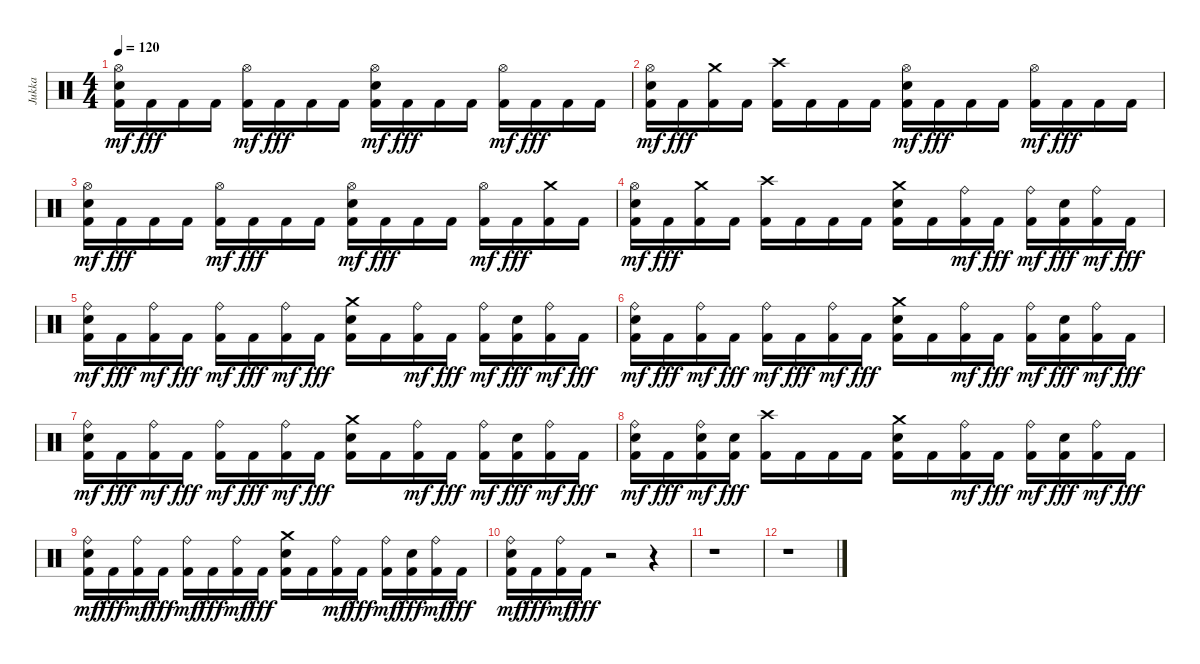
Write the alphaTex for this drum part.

\track ("Jukka" "Jukka") {instrument percussion}
\staff {score}
\articulation defaults
\ts (4 4)
\tempo 120
\clef neutral
\ks c
("Electric Snare (hit)" "Kick (hit) 2" "Hi-Hat (open)").16{dy mf volume 12} "Kick (hit) 2".16{dy fff} "Kick (hit) 2".16{volume 11} "Kick (hit) 2".16{volume 11} ("Kick (hit) 2" "Hi-Hat (open)").16{dy mf} "Kick (hit) 2".16{dy fff volume 11} "Kick (hit) 2".16{volume 11} "Kick (hit) 2".16 ("Electric Snare (hit)" "Kick (hit) 2" "Hi-Hat (open)").16{dy mf volume 11} "Kick (hit) 2".16{dy fff} "Kick (hit) 2".16{volume 11} "Kick (hit) 2".16{volume 11} ("Kick (hit) 2" "Hi-Hat (open)").16{dy mf} "Kick (hit) 2".16{dy fff volume 10} "Kick (hit) 2".16{volume 10} "Kick (hit) 2".16 |
("Electric Snare (hit)" "Kick (hit) 2" "Hi-Hat (open)").16{dy mf volume 10} "Kick (hit) 2".16{dy fff} ("Kick (hit) 2" "Crash medium (hit)").16{volume 10} "Kick (hit) 2".16{volume 10} ("Kick (hit) 2" "Crash high (hit)").16 "Kick (hit) 2".16{volume 10} "Kick (hit) 2".16{volume 10} "Kick (hit) 2".16 ("Electric Snare (hit)" "Kick (hit) 2" "Hi-Hat (open)").16{dy mf volume 10} "Kick (hit) 2".16{dy fff} "Kick (hit) 2".16{volume 10} "Kick (hit) 2".16{volume 9} ("Kick (hit) 2" "Hi-Hat (open)").16{dy mf} "Kick (hit) 2".16{dy fff volume 9} "Kick (hit) 2".16{volume 9} "Kick (hit) 2".16 |
("Electric Snare (hit)" "Kick (hit) 2" "Hi-Hat (open)").16{dy mf volume 9} "Kick (hit) 2".16{dy fff} "Kick (hit) 2".16{volume 9} "Kick (hit) 2".16{volume 9} ("Kick (hit) 2" "Hi-Hat (open)").16{dy mf} "Kick (hit) 2".16{dy fff volume 9} "Kick (hit) 2".16{volume 8} "Kick (hit) 2".16 ("Electric Snare (hit)" "Kick (hit) 2" "Hi-Hat (open)").16{dy mf volume 8} "Kick (hit) 2".16{dy fff volume 8} "Kick (hit) 2".16 "Kick (hit) 2".16{volume 8} ("Kick (hit) 2" "Hi-Hat (open)").16{dy mf} "Kick (hit) 2".16{dy fff volume 8} ("Kick (hit) 2" "Crash medium (hit)").16{volume 8} "Kick (hit) 2".16 |
("Electric Snare (hit)" "Kick (hit) 2" "Hi-Hat (open)").16{dy mf volume 8} "Kick (hit) 2".16{dy fff volume 8} ("Kick (hit) 2" "Crash medium (hit)").16 "Kick (hit) 2".16{volume 8} ("Kick (hit) 2" "Crash high (hit)").16 "Kick (hit) 2".16{volume 7} "Kick (hit) 2".16{volume 7} "Kick (hit) 2".16 ("Electric Snare (hit)" "Kick (hit) 2" "Crash medium (hit)").16{volume 7} "Kick (hit) 2".16{volume 7} ("Kick (hit) 2" "Ride (bell)").16{dy mf} "Kick (hit) 2".16{dy fff volume 7} ("Kick (hit) 2" "Ride (bell)").16{dy mf} ("Kick (hit) 2" "Electric Snare (hit)").16{dy fff volume 7} ("Kick (hit) 2" "Ride (bell)").16{dy mf volume 7} "Kick (hit) 2".16{dy fff} |
("Electric Snare (hit)" "Kick (hit) 2" "Ride (bell)").16{dy mf volume 6} "Kick (hit) 2".16{dy fff volume 6} ("Kick (hit) 2" "Ride (bell)").16{dy mf} "Kick (hit) 2".16{dy fff volume 6} ("Kick (hit) 2" "Ride (bell)").16{dy mf} "Kick (hit) 2".16{dy fff volume 6} ("Kick (hit) 2" "Ride (bell)").16{dy mf volume 6} "Kick (hit) 2".16{dy fff} ("Electric Snare (hit)" "Kick (hit) 2" "Crash medium (hit)").16{volume 6} "Kick (hit) 2".16{volume 6} ("Kick (hit) 2" "Ride (bell)").16{dy mf} "Kick (hit) 2".16{dy fff volume 6} ("Kick (hit) 2" "Ride (bell)").16{dy mf} ("Kick (hit) 2" "Electric Snare (hit)").16{dy fff volume 6} ("Kick (hit) 2" "Ride (bell)").16{dy mf volume 5} "Kick (hit) 2".16{dy fff} |
("Electric Snare (hit)" "Kick (hit) 2" "Ride (bell)").16{dy mf volume 5} "Kick (hit) 2".16{dy fff volume 5} ("Kick (hit) 2" "Ride (bell)").16{dy mf} "Kick (hit) 2".16{dy fff volume 5} ("Kick (hit) 2" "Ride (bell)").16{dy mf} "Kick (hit) 2".16{dy fff volume 5} ("Kick (hit) 2" "Ride (bell)").16{dy mf volume 5} "Kick (hit) 2".16{dy fff} ("Electric Snare (hit)" "Kick (hit) 2" "Crash medium (hit)").16{volume 5} "Kick (hit) 2".16{volume 4} ("Kick (hit) 2" "Ride (bell)").16{dy mf} "Kick (hit) 2".16{dy fff volume 4} ("Kick (hit) 2" "Ride (bell)").16{dy mf} ("Kick (hit) 2" "Electric Snare (hit)").16{dy fff volume 4} ("Kick (hit) 2" "Ride (bell)").16{dy mf volume 4} "Kick (hit) 2".16{dy fff} |
("Electric Snare (hit)" "Kick (hit) 2" "Ride (bell)").16{dy mf volume 4} "Kick (hit) 2".16{dy fff volume 4} ("Kick (hit) 2" "Ride (bell)").16{dy mf} "Kick (hit) 2".16{dy fff volume 4} ("Kick (hit) 2" "Ride (bell)").16{dy mf} "Kick (hit) 2".16{dy fff volume 4} ("Kick (hit) 2" "Ride (bell)").16{dy mf volume 4} "Kick (hit) 2".16{dy fff} ("Electric Snare (hit)" "Kick (hit) 2" "Crash medium (hit)").16{volume 3} "Kick (hit) 2".16{volume 3} ("Kick (hit) 2" "Ride (bell)").16{dy mf} "Kick (hit) 2".16{dy fff volume 3} ("Kick (hit) 2" "Ride (bell)").16{dy mf} ("Kick (hit) 2" "Electric Snare (hit)").16{dy fff volume 3} ("Kick (hit) 2" "Ride (bell)").16{dy mf volume 3} "Kick (hit) 2".16{dy fff} |
("Electric Snare (hit)" "Kick (hit) 2" "Ride (bell)").16{dy mf volume 3} "Kick (hit) 2".16{dy fff volume 3} ("Kick (hit) 2" "Electric Snare (hit)" "Ride (bell)").16{dy mf} ("Kick (hit) 2" "Electric Snare (hit)").16{dy fff volume 2} ("Kick (hit) 2" "Crash high (hit)").16 "Kick (hit) 2".16{volume 2} "Kick (hit) 2".16{volume 2} "Kick (hit) 2".16 ("Electric Snare (hit)" "Kick (hit) 2" "Crash medium (hit)").16{volume 2} "Kick (hit) 2".16{volume 2} ("Kick (hit) 2" "Ride (bell)").16{dy mf} "Kick (hit) 2".16{dy fff volume 2} ("Kick (hit) 2" "Ride (bell)").16{dy mf} ("Kick (hit) 2" "Electric Snare (hit)").16{dy fff volume 2} ("Kick (hit) 2" "Ride (bell)").16{dy mf volume 2} "Kick (hit) 2".16{dy fff} |
("Electric Snare (hit)" "Kick (hit) 2" "Ride (bell)").16{dy mf volume 2} "Kick (hit) 2".16{dy fff volume 1} ("Kick (hit) 2" "Ride (bell)").16{dy mf} "Kick (hit) 2".16{dy fff volume 1} ("Kick (hit) 2" "Ride (bell)").16{dy mf} "Kick (hit) 2".16{dy fff volume 1} ("Kick (hit) 2" "Ride (bell)").16{dy mf volume 1} "Kick (hit) 2".16{dy fff} ("Electric Snare (hit)" "Kick (hit) 2" "Crash medium (hit)").16{volume 1} "Kick (hit) 2".16{volume 1} ("Kick (hit) 2" "Ride (bell)").16{dy mf} "Kick (hit) 2".16{dy fff volume 1} ("Kick (hit) 2" "Ride (bell)").16{dy mf} ("Kick (hit) 2" "Electric Snare (hit)").16{dy fff volume 0} ("Kick (hit) 2" "Ride (bell)").16{dy mf volume 0} "Kick (hit) 2".16{dy fff} |
("Electric Snare (hit)" "Kick (hit) 2" "Ride (bell)").16{dy mf volume 0} "Kick (hit) 2".16{dy fff volume 0} ("Kick (hit) 2" "Ride (bell)").16{dy mf} "Kick (hit) 2".16{dy fff volume 0} r.2 r.4 |
r.1 |
r.1
